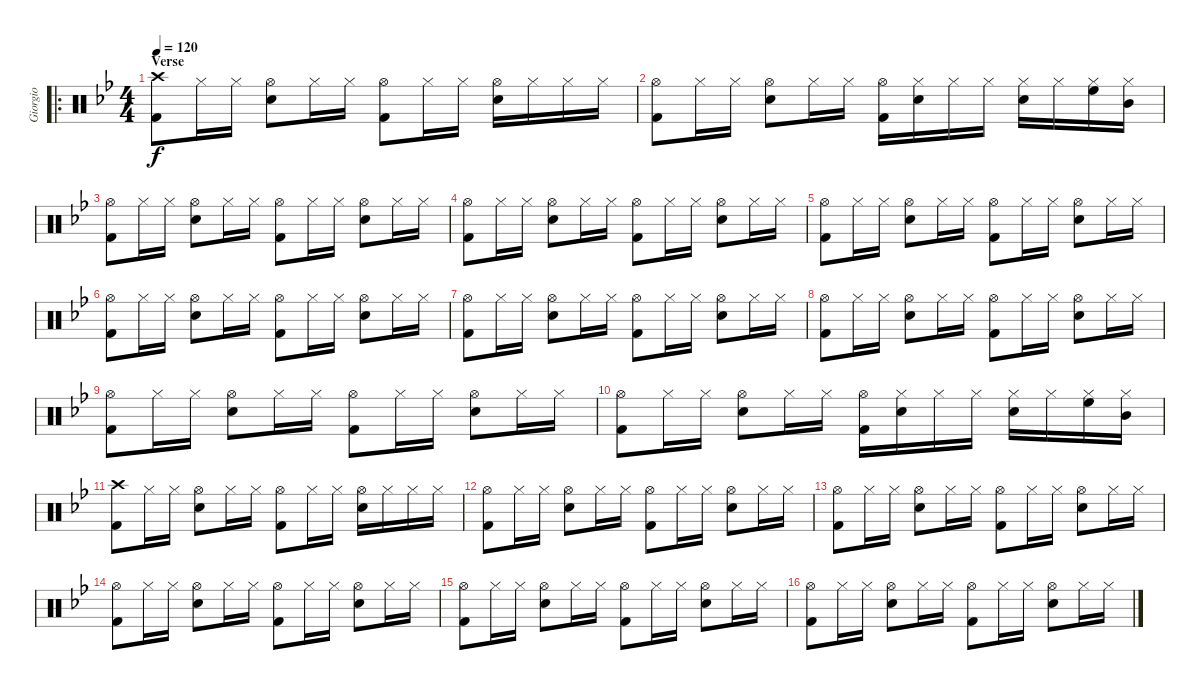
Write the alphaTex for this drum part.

\track ("Giorgio" "Giorgio") {instrument percussion}
\staff {score}
\articulation defaults
\ro
\ts (4 4)
\section ("" "Verse")
\tempo 120
\clef neutral
\ks gminor
("Crash high (hit)" "Kick (hit) 2").8{dy f} "Hi-Hat (closed)".16 "Hi-Hat (closed)".16 ("Hi-Hat (open)" "Snare (hit) 2").8 "Hi-Hat (closed)".16 "Hi-Hat (closed)".16 ("Hi-Hat (open)" "Kick (hit) 2").8 "Hi-Hat (closed)".16 "Hi-Hat (closed)".16 ("Hi-Hat (open)" "Snare (hit) 2").16 "Hi-Hat (closed)".16 "Hi-Hat (closed)".16 "Hi-Hat (closed)".16 |
("Hi-Hat (open)" "Kick (hit) 2").8 "Hi-Hat (closed)".16 "Hi-Hat (closed)".16 ("Hi-Hat (open)" "Snare (hit) 2").8 "Hi-Hat (closed)".16 "Hi-Hat (closed)".16 ("Hi-Hat (open)" "Kick (hit) 2").16 ("Hi-Hat (closed)" "Snare (hit) 2").16 "Hi-Hat (closed)".16 "Hi-Hat (closed)".16 ("Hi-Hat (closed)" "Snare (hit) 2").16 "Hi-Hat (closed)".16 ("Hi-Hat (closed)" "High Floor Tom (hit)").16 ("Hi-Hat (closed)" "Mid Tom (hit)").16 |
("Hi-Hat (open)" "Kick (hit) 2").8 "Hi-Hat (closed)".16 "Hi-Hat (closed)".16 ("Hi-Hat (open)" "Snare (hit) 2").8 "Hi-Hat (closed)".16 "Hi-Hat (closed)".16 ("Hi-Hat (open)" "Kick (hit) 2").8 "Hi-Hat (closed)".16 "Hi-Hat (closed)".16 ("Hi-Hat (open)" "Snare (hit) 2").8 "Hi-Hat (closed)".16 "Hi-Hat (closed)".16 |
("Hi-Hat (open)" "Kick (hit) 2").8 "Hi-Hat (closed)".16 "Hi-Hat (closed)".16 ("Hi-Hat (open)" "Snare (hit) 2").8 "Hi-Hat (closed)".16 "Hi-Hat (closed)".16 ("Hi-Hat (open)" "Kick (hit) 2").8 "Hi-Hat (closed)".16 "Hi-Hat (closed)".16 ("Hi-Hat (open)" "Snare (hit) 2").8 "Hi-Hat (closed)".16 "Hi-Hat (closed)".16 |
("Hi-Hat (open)" "Kick (hit) 2").8 "Hi-Hat (closed)".16 "Hi-Hat (closed)".16 ("Hi-Hat (open)" "Snare (hit) 2").8 "Hi-Hat (closed)".16 "Hi-Hat (closed)".16 ("Hi-Hat (open)" "Kick (hit) 2").8 "Hi-Hat (closed)".16 "Hi-Hat (closed)".16 ("Hi-Hat (open)" "Snare (hit) 2").8 "Hi-Hat (closed)".16 "Hi-Hat (closed)".16 |
("Hi-Hat (open)" "Kick (hit) 2").8 "Hi-Hat (closed)".16 "Hi-Hat (closed)".16 ("Hi-Hat (open)" "Snare (hit) 2").8 "Hi-Hat (closed)".16 "Hi-Hat (closed)".16 ("Hi-Hat (open)" "Kick (hit) 2").8 "Hi-Hat (closed)".16 "Hi-Hat (closed)".16 ("Hi-Hat (open)" "Snare (hit) 2").8 "Hi-Hat (closed)".16 "Hi-Hat (closed)".16 |
("Hi-Hat (open)" "Kick (hit) 2").8 "Hi-Hat (closed)".16 "Hi-Hat (closed)".16 ("Hi-Hat (open)" "Snare (hit) 2").8 "Hi-Hat (closed)".16 "Hi-Hat (closed)".16 ("Hi-Hat (open)" "Kick (hit) 2").8 "Hi-Hat (closed)".16 "Hi-Hat (closed)".16 ("Hi-Hat (open)" "Snare (hit) 2").8 "Hi-Hat (closed)".16 "Hi-Hat (closed)".16 |
("Hi-Hat (open)" "Kick (hit) 2").8 "Hi-Hat (closed)".16 "Hi-Hat (closed)".16 ("Hi-Hat (open)" "Snare (hit) 2").8 "Hi-Hat (closed)".16 "Hi-Hat (closed)".16 ("Hi-Hat (open)" "Kick (hit) 2").8 "Hi-Hat (closed)".16 "Hi-Hat (closed)".16 ("Hi-Hat (open)" "Snare (hit) 2").8 "Hi-Hat (closed)".16 "Hi-Hat (closed)".16 |
("Hi-Hat (open)" "Kick (hit) 2").8 "Hi-Hat (closed)".16 "Hi-Hat (closed)".16 ("Hi-Hat (open)" "Snare (hit) 2").8 "Hi-Hat (closed)".16 "Hi-Hat (closed)".16 ("Hi-Hat (open)" "Kick (hit) 2").8 "Hi-Hat (closed)".16 "Hi-Hat (closed)".16 ("Hi-Hat (open)" "Snare (hit) 2").8 "Hi-Hat (closed)".16 "Hi-Hat (closed)".16 |
("Hi-Hat (open)" "Kick (hit) 2").8 "Hi-Hat (closed)".16 "Hi-Hat (closed)".16 ("Hi-Hat (open)" "Snare (hit) 2").8 "Hi-Hat (closed)".16 "Hi-Hat (closed)".16 ("Hi-Hat (open)" "Kick (hit) 2").16 ("Hi-Hat (closed)" "Snare (hit) 2").16 "Hi-Hat (closed)".16 "Hi-Hat (closed)".16 ("Hi-Hat (closed)" "Snare (hit) 2").16 "Hi-Hat (closed)".16 ("Hi-Hat (closed)" "High Floor Tom (hit)").16 ("Hi-Hat (closed)" "Mid Tom (hit)").16 |
("Crash high (hit)" "Kick (hit) 2").8 "Hi-Hat (closed)".16 "Hi-Hat (closed)".16 ("Hi-Hat (open)" "Snare (hit) 2").8 "Hi-Hat (closed)".16 "Hi-Hat (closed)".16 ("Hi-Hat (open)" "Kick (hit) 2").8 "Hi-Hat (closed)".16 "Hi-Hat (closed)".16 ("Hi-Hat (open)" "Snare (hit) 2").16 "Hi-Hat (closed)".16 "Hi-Hat (closed)".16 "Hi-Hat (closed)".16 |
("Hi-Hat (open)" "Kick (hit) 2").8 "Hi-Hat (closed)".16 "Hi-Hat (closed)".16 ("Hi-Hat (open)" "Snare (hit) 2").8 "Hi-Hat (closed)".16 "Hi-Hat (closed)".16 ("Hi-Hat (open)" "Kick (hit) 2").8 "Hi-Hat (closed)".16 "Hi-Hat (closed)".16 ("Hi-Hat (open)" "Snare (hit) 2").8 "Hi-Hat (closed)".16 "Hi-Hat (closed)".16 |
("Hi-Hat (open)" "Kick (hit) 2").8 "Hi-Hat (closed)".16 "Hi-Hat (closed)".16 ("Hi-Hat (open)" "Snare (hit) 2").8 "Hi-Hat (closed)".16 "Hi-Hat (closed)".16 ("Hi-Hat (open)" "Kick (hit) 2").8 "Hi-Hat (closed)".16 "Hi-Hat (closed)".16 ("Hi-Hat (open)" "Snare (hit) 2").8 "Hi-Hat (closed)".16 "Hi-Hat (closed)".16 |
("Hi-Hat (open)" "Kick (hit) 2").8 "Hi-Hat (closed)".16 "Hi-Hat (closed)".16 ("Hi-Hat (open)" "Snare (hit) 2").8 "Hi-Hat (closed)".16 "Hi-Hat (closed)".16 ("Hi-Hat (open)" "Kick (hit) 2").8 "Hi-Hat (closed)".16 "Hi-Hat (closed)".16 ("Hi-Hat (open)" "Snare (hit) 2").8 "Hi-Hat (closed)".16 "Hi-Hat (closed)".16 |
("Hi-Hat (open)" "Kick (hit) 2").8 "Hi-Hat (closed)".16 "Hi-Hat (closed)".16 ("Hi-Hat (open)" "Snare (hit) 2").8 "Hi-Hat (closed)".16 "Hi-Hat (closed)".16 ("Hi-Hat (open)" "Kick (hit) 2").8 "Hi-Hat (closed)".16 "Hi-Hat (closed)".16 ("Hi-Hat (open)" "Snare (hit) 2").8 "Hi-Hat (closed)".16 "Hi-Hat (closed)".16 |
("Hi-Hat (open)" "Kick (hit) 2").8 "Hi-Hat (closed)".16 "Hi-Hat (closed)".16 ("Hi-Hat (open)" "Snare (hit) 2").8 "Hi-Hat (closed)".16 "Hi-Hat (closed)".16 ("Hi-Hat (open)" "Kick (hit) 2").8 "Hi-Hat (closed)".16 "Hi-Hat (closed)".16 ("Hi-Hat (open)" "Snare (hit) 2").8 "Hi-Hat (closed)".16 "Hi-Hat (closed)".16
